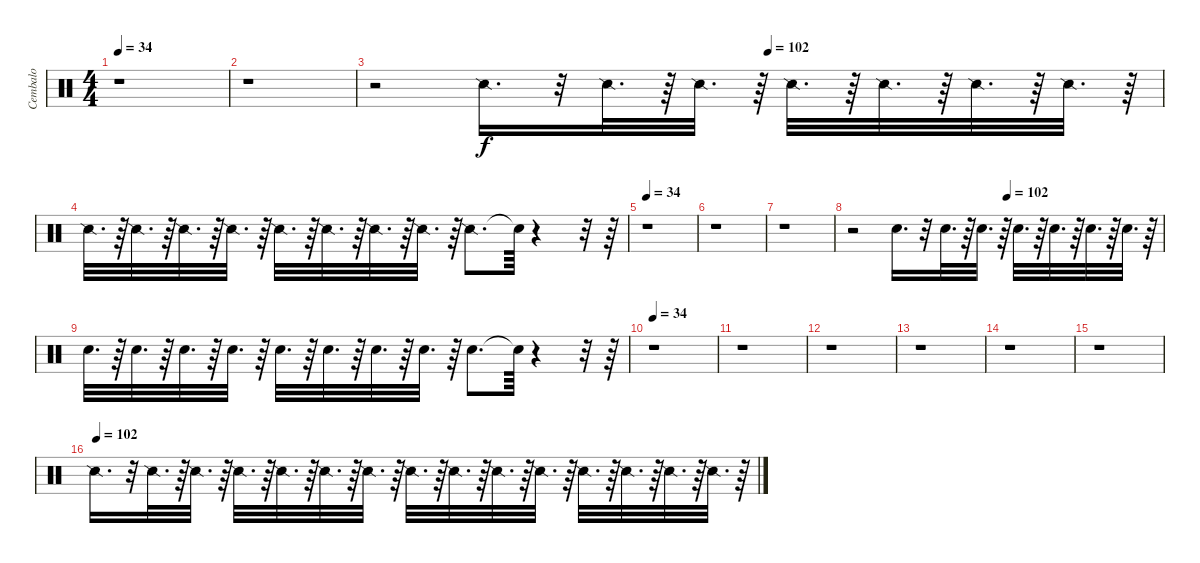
\track ("Cembalo" "Cembalo") {instrument percussion}
\staff {score}
\articulation defaults
\ts (4 4)
\tempo 34
\clef neutral
\ks c
r.1{dy f} |
r.1 |
\tempo (102 0.5)
r.2 "Snare (side stick) 2".16{d} r.32 "Snare (side stick) 2".32{d} r.64 "Snare (side stick) 2".32{d} r.64 "Snare (side stick) 2".32{d} r.64 "Snare (side stick) 2".32{d} r.64 "Snare (side stick) 2".32{d} r.64 "Snare (side stick) 2".32{d} r.64 |
"Snare (side stick) 2".32{d} r.64 "Snare (side stick) 2".32{d} r.64 "Snare (side stick) 2".32{d} r.64 "Snare (side stick) 2".32{d} r.64 "Snare (side stick) 2".32{d} r.64 "Snare (side stick) 2".32{d} r.64 "Snare (side stick) 2".32{d} r.64 "Snare (side stick) 2".32{d} r.64 "Snare (side stick) 2".8{d} "Snare (hit)"{t}.64 r.4 r.32 r.64 |
\tempo 34
r.1 |
r.1 |
r.1 |
\tempo (102 0.5)
r.2 "Metronome (bell)".16{d} r.32 "Metronome (bell)".32{d} r.64 "Metronome (bell)".32{d} r.64 "Metronome (bell)".32{d} r.64 "Metronome (bell)".32{d} r.64 "Metronome (bell)".32{d} r.64 "Metronome (bell)".32{d} r.64 |
"Metronome (bell)".32{d} r.64 "Metronome (bell)".32{d} r.64 "Metronome (bell)".32{d} r.64 "Metronome (bell)".32{d} r.64 "Metronome (bell)".32{d} r.64 "Metronome (bell)".32{d} r.64 "Metronome (bell)".32{d} r.64 "Metronome (bell)".32{d} r.64 "Metronome (bell)".8{d} "Snare (hit)"{t}.64 r.4 r.32 r.64 |
\tempo 34
r.1 |
r.1 |
r.1 |
r.1 |
r.1 |
r.1 |
\tempo (102)
"Snare (side stick) 2".16{d} r.32 "Snare (side stick) 2".32{d} r.64 "Snare (side stick) 2".32{d} r.64 "Snare (side stick) 2".32{d} r.64 "Snare (side stick) 2".32{d} r.64 "Snare (side stick) 2".32{d} r.64 "Snare (side stick) 2".32{d} r.64 "Snare (side stick) 2".32{d} r.64 "Snare (side stick) 2".32{d} r.64 "Snare (side stick) 2".32{d} r.64 "Snare (side stick) 2".32{d} r.64 "Snare (side stick) 2".32{d} r.64 "Snare (side stick) 2".32{d} r.64 "Snare (side stick) 2".32{d} r.64 "Snare (side stick) 2".32{d} r.64
